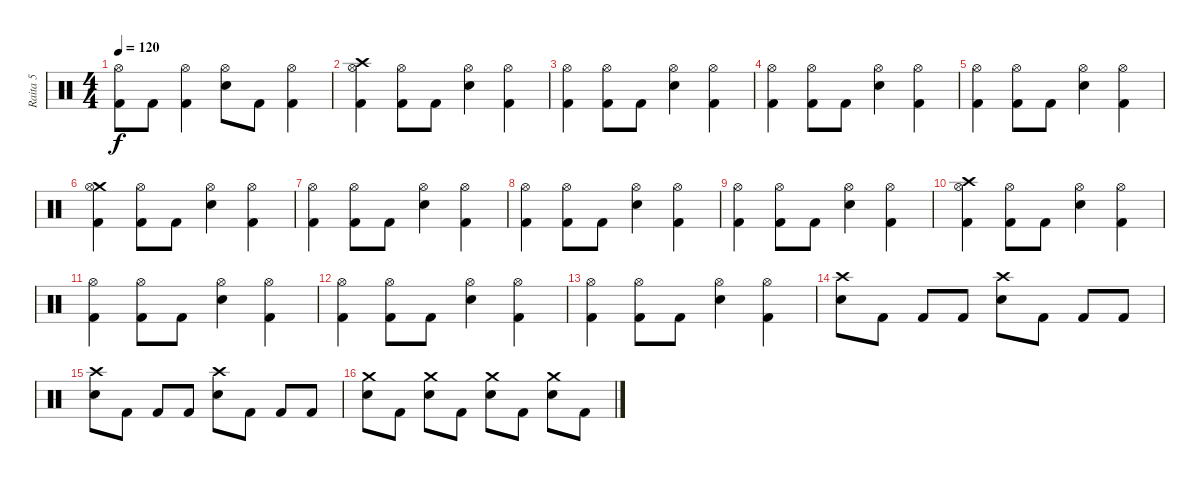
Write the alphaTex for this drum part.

\track ("Raita 5" "Raita 5") {instrument percussion}
\staff {score}
\articulation defaults
\ts (4 4)
\tempo 120
\clef neutral
\ks c
("Hi-Hat (open)" "Kick (hit) 2").8{dy f} "Kick (hit) 2".8 ("Hi-Hat (open)" "Kick (hit) 2").4 ("Hi-Hat (open)" "Snare (hit) 2").8 "Kick (hit) 2".8 ("Hi-Hat (open)" "Kick (hit) 2").4 |
("Crash high (hit)" "Hi-Hat (open)" "Kick (hit) 2").4 ("Hi-Hat (open)" "Kick (hit) 2").8 "Kick (hit) 2".8 ("Hi-Hat (open)" "Snare (hit) 2").4 ("Hi-Hat (open)" "Kick (hit) 2").4 |
("Hi-Hat (open)" "Kick (hit) 2").4 ("Hi-Hat (open)" "Kick (hit) 2").8 "Kick (hit) 2".8 ("Hi-Hat (open)" "Snare (hit) 2").4 ("Hi-Hat (open)" "Kick (hit) 2").4 |
("Hi-Hat (open)" "Kick (hit) 2").4 ("Hi-Hat (open)" "Kick (hit) 2").8 "Kick (hit) 2".8 ("Hi-Hat (open)" "Snare (hit) 2").4 ("Hi-Hat (open)" "Kick (hit) 2").4 |
("Hi-Hat (open)" "Kick (hit) 2").4 ("Hi-Hat (open)" "Kick (hit) 2").8 "Kick (hit) 2".8 ("Hi-Hat (open)" "Snare (hit) 2").4 ("Hi-Hat (open)" "Kick (hit) 2").4 |
("Crash medium (hit)" "Hi-Hat (open)" "Kick (hit) 2").4 ("Hi-Hat (open)" "Kick (hit) 2").8 "Kick (hit) 2".8 ("Hi-Hat (open)" "Snare (hit) 2").4 ("Hi-Hat (open)" "Kick (hit) 2").4 |
("Hi-Hat (open)" "Kick (hit) 2").4 ("Hi-Hat (open)" "Kick (hit) 2").8 "Kick (hit) 2".8 ("Hi-Hat (open)" "Snare (hit) 2").4 ("Hi-Hat (open)" "Kick (hit) 2").4 |
("Hi-Hat (open)" "Kick (hit) 2").4 ("Hi-Hat (open)" "Kick (hit) 2").8 "Kick (hit) 2".8 ("Hi-Hat (open)" "Snare (hit) 2").4 ("Hi-Hat (open)" "Kick (hit) 2").4 |
("Hi-Hat (open)" "Kick (hit) 2").4 ("Hi-Hat (open)" "Kick (hit) 2").8 "Kick (hit) 2".8 ("Hi-Hat (open)" "Snare (hit) 2").4 ("Hi-Hat (open)" "Kick (hit) 2").4 |
("Crash high (hit)" "Hi-Hat (open)" "Kick (hit) 2").4 ("Hi-Hat (open)" "Kick (hit) 2").8 "Kick (hit) 2".8 ("Hi-Hat (open)" "Snare (hit) 2").4 ("Hi-Hat (open)" "Kick (hit) 2").4 |
("Hi-Hat (open)" "Kick (hit) 2").4 ("Hi-Hat (open)" "Kick (hit) 2").8 "Kick (hit) 2".8 ("Hi-Hat (open)" "Snare (hit) 2").4 ("Hi-Hat (open)" "Kick (hit) 2").4 |
("Hi-Hat (open)" "Kick (hit) 2").4 ("Hi-Hat (open)" "Kick (hit) 2").8 "Kick (hit) 2".8 ("Hi-Hat (open)" "Snare (hit) 2").4 ("Hi-Hat (open)" "Kick (hit) 2").4 |
("Hi-Hat (open)" "Kick (hit) 2").4 ("Hi-Hat (open)" "Kick (hit) 2").8 "Kick (hit) 2".8 ("Hi-Hat (open)" "Snare (hit) 2").4 ("Hi-Hat (open)" "Kick (hit) 2").4 |
("Crash high (hit)" "Snare (hit) 2").8 "Kick (hit) 2".8 "Kick (hit) 2".8 "Kick (hit) 2".8 ("Crash high (hit)" "Snare (hit) 2").8 "Kick (hit) 2".8 "Kick (hit) 2".8 "Kick (hit) 2".8 |
("Crash high (hit)" "Snare (hit) 2").8 "Kick (hit) 2".8 "Kick (hit) 2".8 "Kick (hit) 2".8 ("Crash high (hit)" "Snare (hit) 2").8 "Kick (hit) 2".8 "Kick (hit) 2".8 "Kick (hit) 2".8 |
("Crash medium (hit)" "Snare (hit) 2").8 "Kick (hit) 2".8 ("Crash medium (hit)" "Snare (hit) 2").8 "Kick (hit) 2".8 ("Crash medium (hit)" "Snare (hit) 2").8 "Kick (hit) 2".8 ("Crash medium (hit)" "Snare (hit) 2").8 "Kick (hit) 2".8
